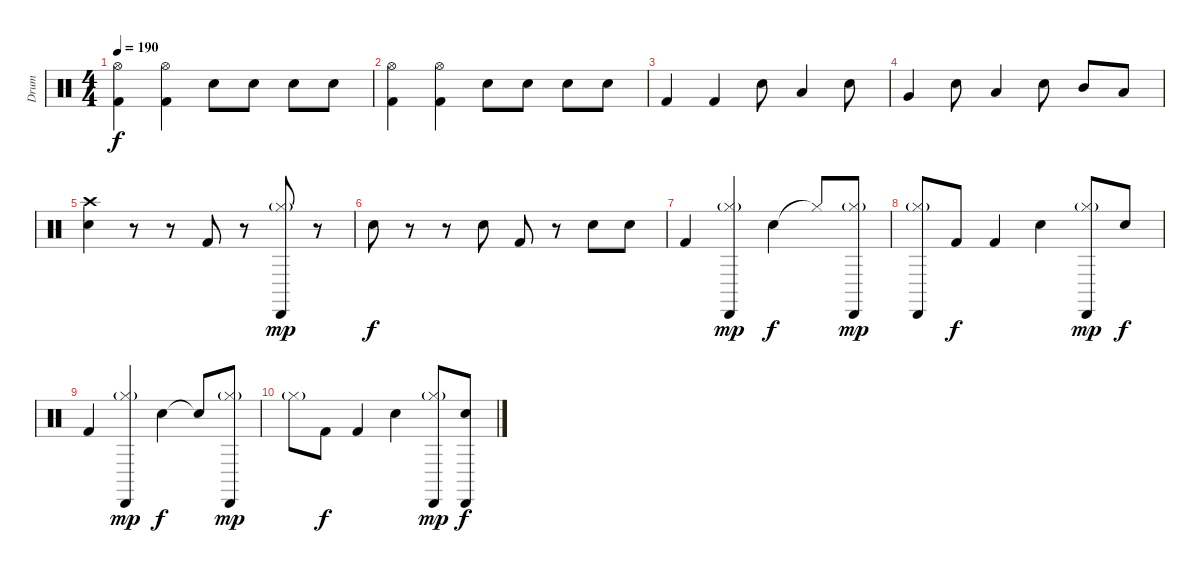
\track ("Drum" "Drum") {instrument percussion}
\staff {score}
\articulation defaults
\ts (4 4)
\tempo 190
\clef neutral
\ks c
("Kick (hit) 2" "Hi-Hat (open)").4{dy f} ("Kick (hit) 2" "Hi-Hat (open)").4 "Snare (hit) 2".8 "Snare (hit) 2".8 "Snare (hit) 2".8 "Snare (hit) 2".8 |
("Kick (hit) 2" "Hi-Hat (open)").4 ("Kick (hit) 2" "Hi-Hat (open)").4 "Snare (hit) 2".8 "Snare (hit) 2".8 "Snare (hit) 2".8 "Snare (hit) 2".8 |
"Kick (hit) 2".4 "Kick (hit) 2".4 "Snare (hit) 2".8 "Low Tom (hit)".4 "Snare (hit) 2".8 |
"Very Low Tom (hit)".4 "Snare (hit) 2".8 "Low Floor Tom (hit)".4 "Snare (hit) 2".8 "Mid Tom (hit)".8 "Low Tom (hit)".8 |
("Snare (hit) 2" "Crash high (hit)").4 r.8 r.8 "Kick (hit) 2".8 r.8 ("Hi-Hat (closed)"{g} "Cabasa (hit)").8{dy mp} r.8 |
"Snare (hit) 2".8{dy f} r.8 r.8 "Snare (hit) 2".8 "Kick (hit) 2".8 r.8 "Snare (hit) 2".8 "Snare (hit) 2".8 |
"Kick (hit) 2".4 ("Hi-Hat (closed)"{g} "Cabasa (hit)").4{dy mp} "Snare (hit) 2".4{dy f} "Hi-Hat (closed)"{t}.8 ("Hi-Hat (closed)"{g} "Cabasa (hit)").8{dy mp} |
("Hi-Hat (closed)"{g} "Cabasa (hit)").8 "Kick (hit) 2".8{dy f} "Kick (hit) 2".4 "Snare (hit) 2".4 ("Hi-Hat (closed)"{g} "Cabasa (hit)").8{dy mp} "Snare (hit) 2".8{dy f} |
"Kick (hit) 2".4 ("Hi-Hat (closed)"{g} "Cabasa (hit)").4{dy mp} "Snare (hit) 2".4{dy f} "Snare (hit)"{t}.8 ("Hi-Hat (closed)"{g} "Cabasa (hit)").8{dy mp} |
"Hi-Hat (closed)"{g}.8 "Kick (hit) 2".8{dy f} "Kick (hit) 2".4 "Snare (hit) 2".4 ("Hi-Hat (closed)"{g} "Cabasa (hit)").8{dy mp} ("Snare (hit) 2" "Cabasa (hit)").8{dy f}
